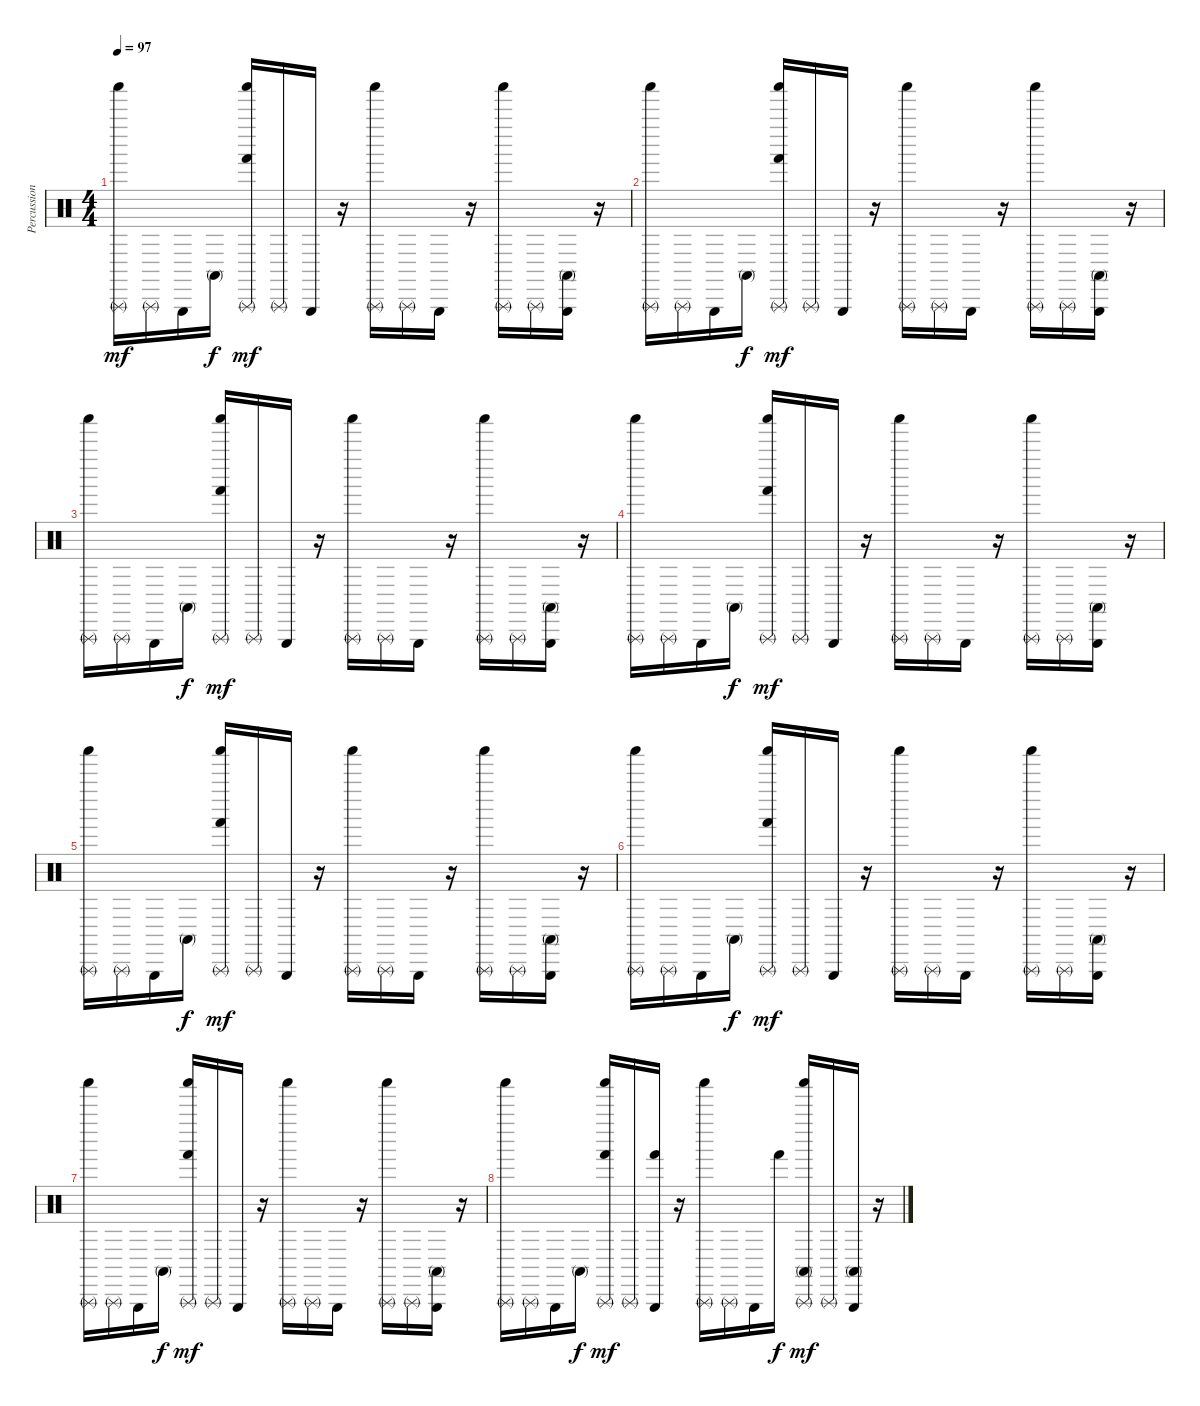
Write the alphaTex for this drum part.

\track ("Percussions" "Percussion") {instrument percussion}
\staff {score}
\articulation defaults
\ts (4 4)
\tempo 97
\clef neutral
\ks c
("Triangle (rnute)" "Shaker (hit)").16{dy mf} "Triangle (rnute)".16 "Triangle (hit)".16 "Conga high (mute)".16{dy f} ("Triangle (rnute)" "Shaker (hit)" "Hand (hit)").16{dy mf} "Triangle (rnute)".16 "Triangle (hit)".16 r.16 ("Triangle (rnute)" "Shaker (hit)").16 "Triangle (rnute)".16 "Triangle (hit)".16 r.16 ("Triangle (rnute)" "Shaker (hit)").16 "Triangle (rnute)".16 ("Triangle (hit)" "Conga high (mute)").16 r.16 |
("Triangle (rnute)" "Shaker (hit)").16 "Triangle (rnute)".16 "Triangle (hit)".16 "Conga high (mute)".16{dy f} ("Triangle (rnute)" "Shaker (hit)" "Hand (hit)").16{dy mf} "Triangle (rnute)".16 "Triangle (hit)".16 r.16 ("Triangle (rnute)" "Shaker (hit)").16 "Triangle (rnute)".16 "Triangle (hit)".16 r.16 ("Triangle (rnute)" "Shaker (hit)").16 "Triangle (rnute)".16 ("Triangle (hit)" "Conga high (mute)").16 r.16 |
("Triangle (rnute)" "Shaker (hit)").16 "Triangle (rnute)".16 "Triangle (hit)".16 "Conga high (mute)".16{dy f} ("Triangle (rnute)" "Shaker (hit)" "Hand (hit)").16{dy mf} "Triangle (rnute)".16 "Triangle (hit)".16 r.16 ("Triangle (rnute)" "Shaker (hit)").16 "Triangle (rnute)".16 "Triangle (hit)".16 r.16 ("Triangle (rnute)" "Shaker (hit)").16 "Triangle (rnute)".16 ("Triangle (hit)" "Conga high (mute)").16 r.16 |
("Triangle (rnute)" "Shaker (hit)").16 "Triangle (rnute)".16 "Triangle (hit)".16 "Conga high (mute)".16{dy f} ("Triangle (rnute)" "Shaker (hit)" "Hand (hit)").16{dy mf} "Triangle (rnute)".16 "Triangle (hit)".16 r.16 ("Triangle (rnute)" "Shaker (hit)").16 "Triangle (rnute)".16 "Triangle (hit)".16 r.16 ("Triangle (rnute)" "Shaker (hit)").16 "Triangle (rnute)".16 ("Triangle (hit)" "Conga high (mute)").16 r.16 |
("Triangle (rnute)" "Shaker (hit)").16 "Triangle (rnute)".16 "Triangle (hit)".16 "Conga high (mute)".16{dy f} ("Triangle (rnute)" "Shaker (hit)" "Hand (hit)").16{dy mf} "Triangle (rnute)".16 "Triangle (hit)".16 r.16 ("Triangle (rnute)" "Shaker (hit)").16 "Triangle (rnute)".16 "Triangle (hit)".16 r.16 ("Triangle (rnute)" "Shaker (hit)").16 "Triangle (rnute)".16 ("Triangle (hit)" "Conga high (mute)").16 r.16 |
("Triangle (rnute)" "Shaker (hit)").16 "Triangle (rnute)".16 "Triangle (hit)".16 "Conga high (mute)".16{dy f} ("Triangle (rnute)" "Shaker (hit)" "Hand (hit)").16{dy mf} "Triangle (rnute)".16 "Triangle (hit)".16 r.16 ("Triangle (rnute)" "Shaker (hit)").16 "Triangle (rnute)".16 "Triangle (hit)".16 r.16 ("Triangle (rnute)" "Shaker (hit)").16 "Triangle (rnute)".16 ("Triangle (hit)" "Conga high (mute)").16 r.16 |
("Triangle (rnute)" "Shaker (hit)").16 "Triangle (rnute)".16 "Triangle (hit)".16 "Conga high (mute)".16{dy f} ("Triangle (rnute)" "Shaker (hit)" "Hand (hit)").16{dy mf} "Triangle (rnute)".16 "Triangle (hit)".16 r.16 ("Triangle (rnute)" "Shaker (hit)").16 "Triangle (rnute)".16 "Triangle (hit)".16 r.16 ("Triangle (rnute)" "Shaker (hit)").16 "Triangle (rnute)".16 ("Triangle (hit)" "Conga high (mute)").16 r.16 |
("Triangle (rnute)" "Shaker (hit)").16 "Triangle (rnute)".16 "Triangle (hit)".16 "Conga high (mute)".16{dy f} ("Triangle (rnute)" "Shaker (hit)" "Hand (hit)").16{dy mf} "Triangle (rnute)".16 ("Triangle (hit)" "Hand (hit)").16 r.16 ("Triangle (rnute)" "Shaker (hit)").16 "Triangle (rnute)".16 "Triangle (hit)".16 "Hand (hit)".16{dy f} ("Triangle (rnute)" "Shaker (hit)" "Conga high (mute)").16{dy mf} "Triangle (rnute)".16 ("Triangle (hit)" "Conga high (mute)").16 r.16
